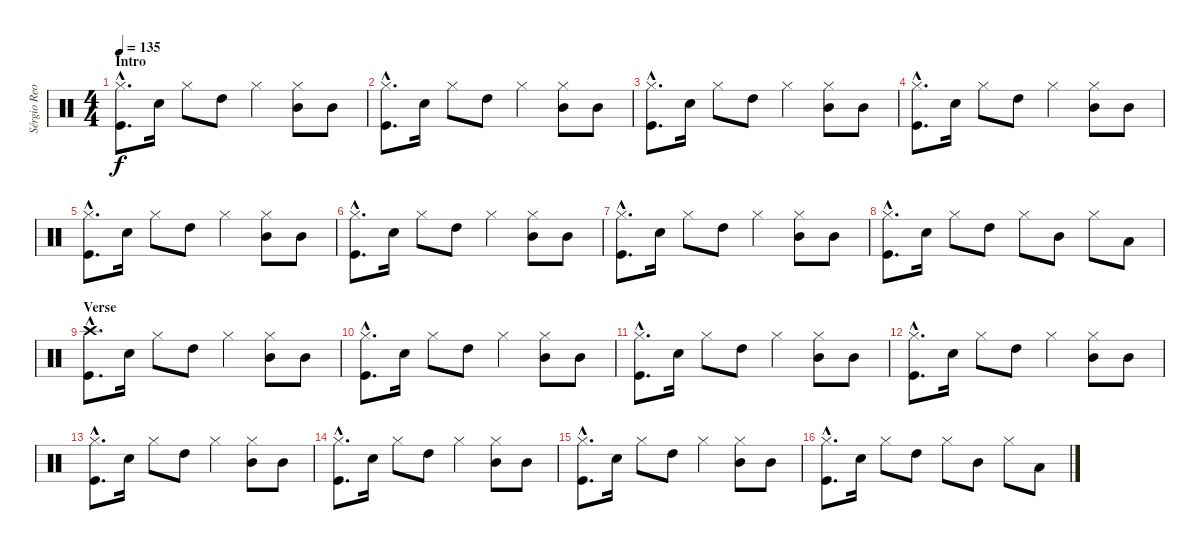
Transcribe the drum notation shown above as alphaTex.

\track ("Sérgio Reoli" "Sérgio Reo") {instrument percussion}
\staff {score}
\articulation defaults
\ts (4 4)
\section ("" "Intro")
\tempo 135
\clef neutral
\ks c
("Hi-Hat (closed)"{hac} "Kick (hit)"{hac}).8{d dy f} "Electric Snare (hit)".16 "Hi-Hat (closed)".8 "High Tom (hit)".8 "Hi-Hat (closed)".4 ("Hi-Hat (closed)" "Mid Tom (hit)").8 "Mid Tom (hit)".8 |
("Hi-Hat (closed)"{hac} "Kick (hit)"{hac}).8{d} "Electric Snare (hit)".16 "Hi-Hat (closed)".8 "High Tom (hit)".8 "Hi-Hat (closed)".4 ("Hi-Hat (closed)" "Mid Tom (hit)").8 "Mid Tom (hit)".8 |
("Hi-Hat (closed)"{hac} "Kick (hit)"{hac}).8{d} "Electric Snare (hit)".16 "Hi-Hat (closed)".8 "High Tom (hit)".8 "Hi-Hat (closed)".4 ("Hi-Hat (closed)" "Mid Tom (hit)").8 "Mid Tom (hit)".8 |
("Hi-Hat (closed)"{hac} "Kick (hit)"{hac}).8{d} "Electric Snare (hit)".16 "Hi-Hat (closed)".8 "High Tom (hit)".8 "Hi-Hat (closed)".4 ("Hi-Hat (closed)" "Mid Tom (hit)").8 "Mid Tom (hit)".8 |
("Hi-Hat (closed)"{hac} "Kick (hit)"{hac}).8{d} "Electric Snare (hit)".16 "Hi-Hat (closed)".8 "High Tom (hit)".8 "Hi-Hat (closed)".4 ("Hi-Hat (closed)" "Mid Tom (hit)").8 "Mid Tom (hit)".8 |
("Hi-Hat (closed)"{hac} "Kick (hit)"{hac}).8{d} "Electric Snare (hit)".16 "Hi-Hat (closed)".8 "High Tom (hit)".8 "Hi-Hat (closed)".4 ("Hi-Hat (closed)" "Mid Tom (hit)").8 "Mid Tom (hit)".8 |
("Hi-Hat (closed)"{hac} "Kick (hit)"{hac}).8{d} "Electric Snare (hit)".16 "Hi-Hat (closed)".8 "High Tom (hit)".8 "Hi-Hat (closed)".4 ("Hi-Hat (closed)" "Mid Tom (hit)").8 "Mid Tom (hit)".8 |
("Hi-Hat (closed)"{hac} "Kick (hit)"{hac}).8{d} "Electric Snare (hit)".16 "Hi-Hat (closed)".8 "High Tom (hit)".8 "Hi-Hat (closed)".8 "Mid Tom (hit)".8 "Hi-Hat (closed)".8 "Low Tom (hit)".8 |
\section ("" "Verse")
("Crash high (hit)"{hac} "Kick (hit)"{hac}).8{d} "Electric Snare (hit)".16 "Hi-Hat (closed)".8 "High Tom (hit)".8 "Hi-Hat (closed)".4 ("Hi-Hat (closed)" "Mid Tom (hit)").8 "Mid Tom (hit)".8 |
("Hi-Hat (closed)"{hac} "Kick (hit)"{hac}).8{d} "Electric Snare (hit)".16 "Hi-Hat (closed)".8 "High Tom (hit)".8 "Hi-Hat (closed)".4 ("Hi-Hat (closed)" "Mid Tom (hit)").8 "Mid Tom (hit)".8 |
("Hi-Hat (closed)"{hac} "Kick (hit)"{hac}).8{d} "Electric Snare (hit)".16 "Hi-Hat (closed)".8 "High Tom (hit)".8 "Hi-Hat (closed)".4 ("Hi-Hat (closed)" "Mid Tom (hit)").8 "Mid Tom (hit)".8 |
("Hi-Hat (closed)"{hac} "Kick (hit)"{hac}).8{d} "Electric Snare (hit)".16 "Hi-Hat (closed)".8 "High Tom (hit)".8 "Hi-Hat (closed)".4 ("Hi-Hat (closed)" "Mid Tom (hit)").8 "Mid Tom (hit)".8 |
("Hi-Hat (closed)"{hac} "Kick (hit)"{hac}).8{d} "Electric Snare (hit)".16 "Hi-Hat (closed)".8 "High Tom (hit)".8 "Hi-Hat (closed)".4 ("Hi-Hat (closed)" "Mid Tom (hit)").8 "Mid Tom (hit)".8 |
("Hi-Hat (closed)"{hac} "Kick (hit)"{hac}).8{d} "Electric Snare (hit)".16 "Hi-Hat (closed)".8 "High Tom (hit)".8 "Hi-Hat (closed)".4 ("Hi-Hat (closed)" "Mid Tom (hit)").8 "Mid Tom (hit)".8 |
("Hi-Hat (closed)"{hac} "Kick (hit)"{hac}).8{d} "Electric Snare (hit)".16 "Hi-Hat (closed)".8 "High Tom (hit)".8 "Hi-Hat (closed)".4 ("Hi-Hat (closed)" "Mid Tom (hit)").8 "Mid Tom (hit)".8 |
("Hi-Hat (closed)"{hac} "Kick (hit)"{hac}).8{d} "Electric Snare (hit)".16 "Hi-Hat (closed)".8 "High Tom (hit)".8 "Hi-Hat (closed)".8 "Mid Tom (hit)".8 "Hi-Hat (closed)".8 "Low Tom (hit)".8
